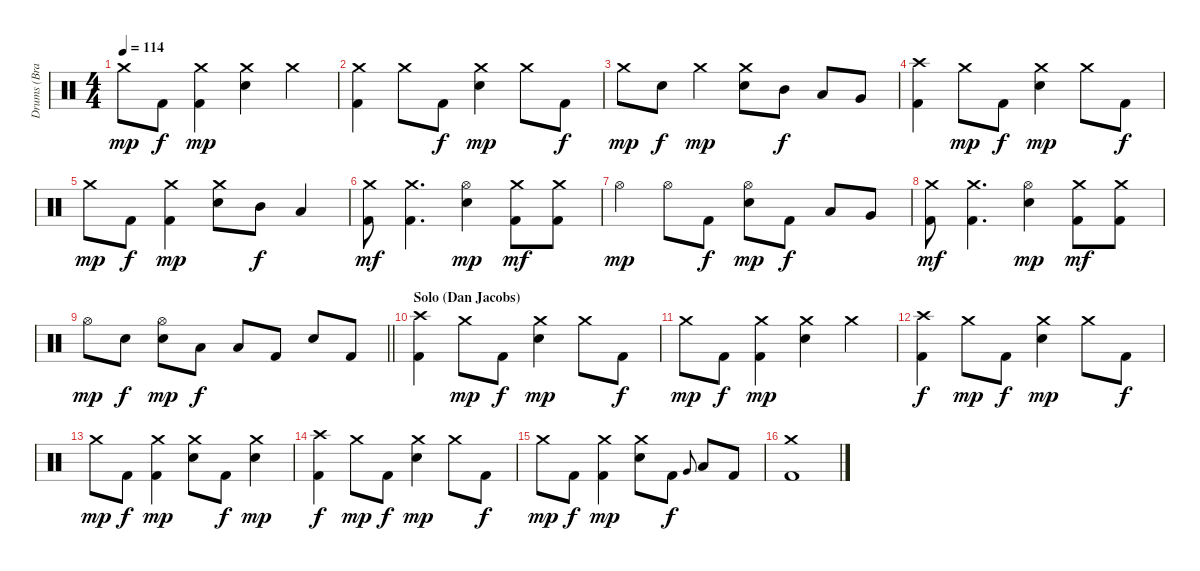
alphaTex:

\track ("Drums (Brandon Saller)" "Drums (Bra") {instrument percussion}
\staff {score}
\articulation defaults
\ts (4 4)
\tempo 114
\clef neutral
\ks c "Crash medium (hit)".8{dy mp} "Kick (hit) 2".8{dy f}
("Crash medium (hit)" "Kick (hit) 2").4{dy mp} ("Crash medium (hit)" "Electric Snare (hit)").4 "Crash medium (hit)".4 |
("Crash medium (hit)" "Kick (hit) 2").4 "Crash medium (hit)".8 "Kick (hit) 2".8{dy f} ("Crash medium (hit)" "Electric Snare (hit)").4{dy mp} "Crash medium (hit)".8 "Kick (hit) 2".8{dy f} |
"Crash medium (hit)".8{dy mp} "Electric Snare (hit)".8{dy f} "Crash medium (hit)".4{dy mp} ("Crash medium (hit)" "Electric Snare (hit)").8 "Mid Tom (hit)".8{dy f} "Low Tom (hit)".8 "Very Low Tom (hit)".8 |
("Crash high (hit)" "Kick (hit) 2").4 "Crash medium (hit)".8{dy mp} "Kick (hit) 2".8{dy f} ("Crash medium (hit)" "Electric Snare (hit)").4{dy mp} "Crash medium (hit)".8 "Kick (hit) 2".8{dy f} |
"Crash medium (hit)".8{dy mp} "Kick (hit) 2".8{dy f} ("Crash medium (hit)" "Kick (hit) 2").4{dy mp} ("Crash medium (hit)" "Electric Snare (hit)").8 "Mid Tom (hit)".8{dy f} "Low Tom (hit)".4 |
("Crash medium (hit)" "Kick (hit) 2").8{dy mf} ("Crash medium (hit)" "Kick (hit) 2").4{d} ("Hi-Hat (open)" "Electric Snare (hit)").4{dy mp} ("Crash medium (hit)" "Kick (hit) 2").8{dy mf} ("Crash medium (hit)" "Kick (hit) 2").8 |
"Hi-Hat (open)".4{dy mp} "Hi-Hat (open)".8 "Kick (hit) 2".8{dy f} ("Hi-Hat (open)" "Electric Snare (hit)").8{dy mp} "Kick (hit) 2".8{dy f} "Low Tom (hit)".8 "Very Low Tom (hit)".8 |
("Crash medium (hit)" "Kick (hit) 2").8{dy mf} ("Crash medium (hit)" "Kick (hit) 2").4{d} ("Hi-Hat (open)" "Electric Snare (hit)").4{dy mp} ("Crash medium (hit)" "Kick (hit) 2").8{dy mf} ("Crash medium (hit)" "Kick (hit) 2").8 |
\barLineRight lightlight "Hi-Hat (open)".8{dy mp} "Electric Snare (hit)".8{dy f}
("Hi-Hat (open)" "Electric Snare (hit)").8{dy mp} "Low Tom (hit)".8{dy f} "Low Tom (hit)".8 "Kick (hit) 2".8 "Electric Snare (hit)".8 "Kick (hit) 2".8 |
\section ("" "Solo (Dan Jacobs)")
("Crash high (hit)" "Kick (hit) 2").4 "Crash medium (hit)".8{dy mp} "Kick (hit) 2".8{dy f} ("Crash medium (hit)" "Electric Snare (hit)").4{dy mp} "Crash medium (hit)".8 "Kick (hit) 2".8{dy f} |
"Crash medium (hit)".8{dy mp} "Kick (hit) 2".8{dy f} ("Crash medium (hit)" "Kick (hit) 2").4{dy mp} ("Crash medium (hit)" "Electric Snare (hit)").4 "Crash medium (hit)".4 |
("Crash high (hit)" "Kick (hit) 2").4{dy f} "Crash medium (hit)".8{dy mp} "Kick (hit) 2".8{dy f} ("Crash medium (hit)" "Electric Snare (hit)").4{dy mp} "Crash medium (hit)".8 "Kick (hit) 2".8{dy f} |
"Crash medium (hit)".8{dy mp} "Kick (hit) 2".8{dy f} ("Crash medium (hit)" "Kick (hit) 2").4{dy mp} ("Crash medium (hit)" "Electric Snare (hit)").8 "Kick (hit) 2".8{dy f} ("Crash medium (hit)" "Electric Snare (hit)").4{dy mp} |
("Crash high (hit)" "Kick (hit) 2").4{dy f} "Crash medium (hit)".8{dy mp} "Kick (hit) 2".8{dy f} ("Crash medium (hit)" "Electric Snare (hit)").4{dy mp} "Crash medium (hit)".8 "Kick (hit) 2".8{dy f} |
"Crash medium (hit)".8{dy mp} "Kick (hit) 2".8{dy f} ("Crash medium (hit)" "Kick (hit) 2").4{dy mp} ("Crash medium (hit)" "Electric Snare (hit)").8 "Kick (hit) 2".8{dy f} "Very Low Tom (hit)".8{gr onbeat} "Low Tom (hit)".8 "Kick (hit) 2".8 |
("Crash medium (hit)" "Kick (hit) 2").1
